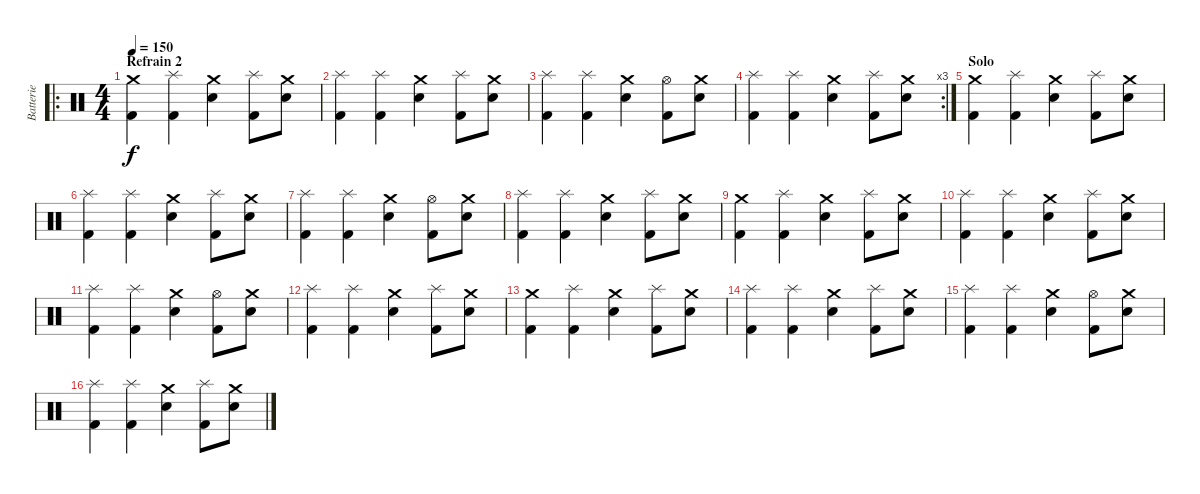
\track ("Batterie" "Batterie") {instrument percussion}
\staff {score}
\articulation defaults
\ro
\ts (4 4)
\section ("" "Refrain 2")
\tempo 150
\clef neutral
\ks c
("Crash medium (hit)" "Kick (hit) 2").4{dy f} ("Splash (hit)" "Kick (hit) 2").4 ("Crash medium (hit)" "Snare (hit) 2").4 ("Splash (hit)" "Kick (hit) 2").8 ("Crash medium (hit)" "Snare (hit) 2").8 |
("Splash (hit)" "Kick (hit) 2").4 ("Splash (hit)" "Kick (hit) 2").4 ("Crash medium (hit)" "Snare (hit) 2").4 ("Splash (hit)" "Kick (hit) 2").8 ("Crash medium (hit)" "Snare (hit) 2").8 |
("Splash (hit)" "Kick (hit) 2").4 ("Splash (hit)" "Kick (hit) 2").4 ("Crash medium (hit)" "Snare (hit) 2").4 ("Hi-Hat (open)" "Kick (hit) 2").8 ("Crash medium (hit)" "Snare (hit) 2").8 |
\rc 3
("Splash (hit)" "Kick (hit) 2").4 ("Splash (hit)" "Kick (hit) 2").4 ("Crash medium (hit)" "Snare (hit) 2").4 ("Splash (hit)" "Kick (hit) 2").8 ("Crash medium (hit)" "Snare (hit) 2").8 |
\section ("" "Solo")
("Crash medium (hit)" "Kick (hit) 2").4 ("Splash (hit)" "Kick (hit) 2").4 ("Crash medium (hit)" "Snare (hit) 2").4 ("Splash (hit)" "Kick (hit) 2").8 ("Crash medium (hit)" "Snare (hit) 2").8 |
("Splash (hit)" "Kick (hit) 2").4 ("Splash (hit)" "Kick (hit) 2").4 ("Crash medium (hit)" "Snare (hit) 2").4 ("Splash (hit)" "Kick (hit) 2").8 ("Crash medium (hit)" "Snare (hit) 2").8 |
("Splash (hit)" "Kick (hit) 2").4 ("Splash (hit)" "Kick (hit) 2").4 ("Crash medium (hit)" "Snare (hit) 2").4 ("Hi-Hat (open)" "Kick (hit) 2").8 ("Crash medium (hit)" "Snare (hit) 2").8 |
("Splash (hit)" "Kick (hit) 2").4 ("Splash (hit)" "Kick (hit) 2").4 ("Crash medium (hit)" "Snare (hit) 2").4 ("Splash (hit)" "Kick (hit) 2").8 ("Crash medium (hit)" "Snare (hit) 2").8 |
("Crash medium (hit)" "Kick (hit) 2").4 ("Splash (hit)" "Kick (hit) 2").4 ("Crash medium (hit)" "Snare (hit) 2").4 ("Splash (hit)" "Kick (hit) 2").8 ("Crash medium (hit)" "Snare (hit) 2").8 |
("Splash (hit)" "Kick (hit) 2").4 ("Splash (hit)" "Kick (hit) 2").4 ("Crash medium (hit)" "Snare (hit) 2").4 ("Splash (hit)" "Kick (hit) 2").8 ("Crash medium (hit)" "Snare (hit) 2").8 |
("Splash (hit)" "Kick (hit) 2").4 ("Splash (hit)" "Kick (hit) 2").4 ("Crash medium (hit)" "Snare (hit) 2").4 ("Hi-Hat (open)" "Kick (hit) 2").8 ("Crash medium (hit)" "Snare (hit) 2").8 |
("Splash (hit)" "Kick (hit) 2").4 ("Splash (hit)" "Kick (hit) 2").4 ("Crash medium (hit)" "Snare (hit) 2").4 ("Splash (hit)" "Kick (hit) 2").8 ("Crash medium (hit)" "Snare (hit) 2").8 |
("Crash medium (hit)" "Kick (hit) 2").4 ("Splash (hit)" "Kick (hit) 2").4 ("Crash medium (hit)" "Snare (hit) 2").4 ("Splash (hit)" "Kick (hit) 2").8 ("Crash medium (hit)" "Snare (hit) 2").8 |
("Splash (hit)" "Kick (hit) 2").4 ("Splash (hit)" "Kick (hit) 2").4 ("Crash medium (hit)" "Snare (hit) 2").4 ("Splash (hit)" "Kick (hit) 2").8 ("Crash medium (hit)" "Snare (hit) 2").8 |
("Splash (hit)" "Kick (hit) 2").4 ("Splash (hit)" "Kick (hit) 2").4 ("Crash medium (hit)" "Snare (hit) 2").4 ("Hi-Hat (open)" "Kick (hit) 2").8 ("Crash medium (hit)" "Snare (hit) 2").8 |
("Splash (hit)" "Kick (hit) 2").4 ("Splash (hit)" "Kick (hit) 2").4 ("Crash medium (hit)" "Snare (hit) 2").4 ("Splash (hit)" "Kick (hit) 2").8 ("Crash medium (hit)" "Snare (hit) 2").8
